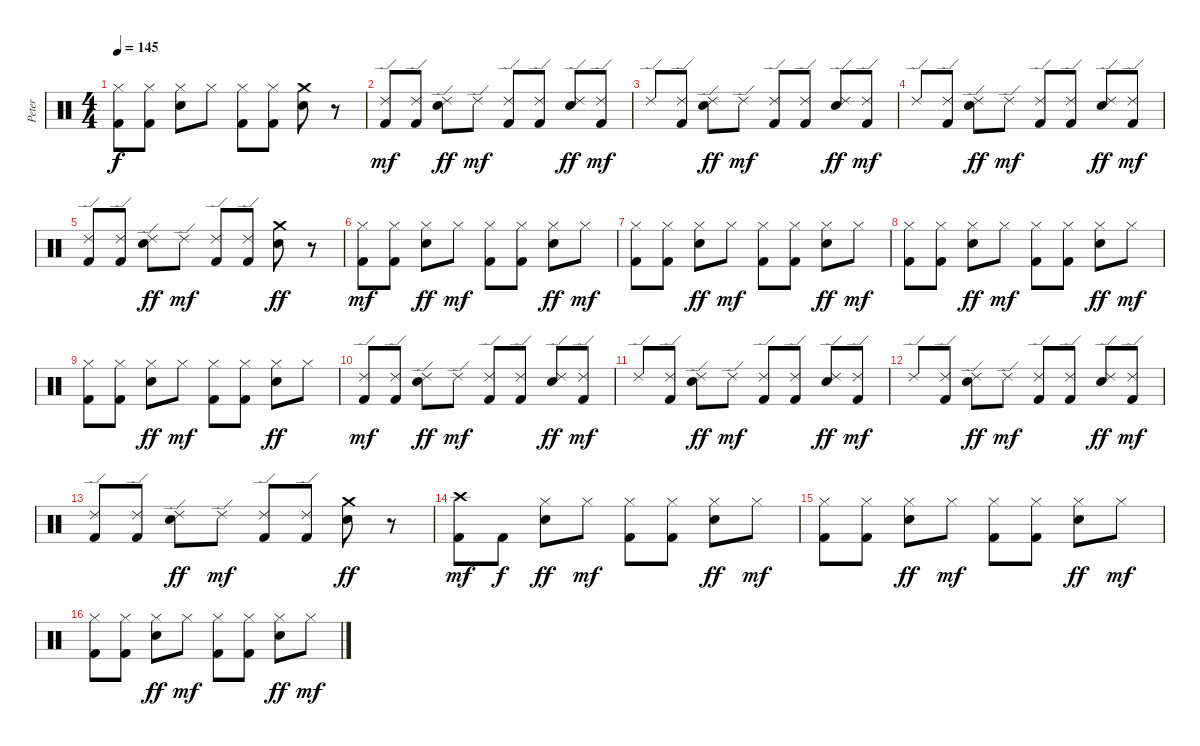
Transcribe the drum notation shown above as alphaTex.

\track ("Peter" "Peter") {instrument percussion}
\staff {score}
\articulation defaults
\ts (4 4)
\tempo 145
\clef neutral
\ks c
("Hi-Hat (closed)" "Kick (hit) 2").8{dy f} ("Hi-Hat (closed)" "Kick (hit) 2").8 ("Hi-Hat (closed)" "Electric Snare (hit)").8 "Hi-Hat (closed)".8 ("Hi-Hat (closed)" "Kick (hit) 2").8 ("Hi-Hat (closed)" "Kick (hit) 2").8 ("Crash medium (hit)" "Electric Snare (hit)").8 r.8 |
("Ride (edge) 2" "Kick (hit) 2").8{dy mf} ("Ride (edge) 2" "Kick (hit) 2").8 ("Ride (edge) 2" "Electric Snare (hit)").8{dy ff} "Ride (edge) 2".8{dy mf} ("Ride (edge) 2" "Kick (hit) 2").8 ("Ride (edge) 2" "Kick (hit) 2").8 ("Ride (edge) 2" "Electric Snare (hit)").8{dy ff} ("Ride (edge) 2" "Kick (hit) 2").8{dy mf} |
"Ride (edge) 2".8 ("Ride (edge) 2" "Kick (hit) 2").8 ("Ride (edge) 2" "Electric Snare (hit)").8{dy ff} "Ride (edge) 2".8{dy mf} ("Ride (edge) 2" "Kick (hit) 2").8 ("Ride (edge) 2" "Kick (hit) 2").8 ("Ride (edge) 2" "Electric Snare (hit)").8{dy ff} ("Ride (edge) 2" "Kick (hit) 2").8{dy mf} |
"Ride (edge) 2".8 ("Ride (edge) 2" "Kick (hit) 2").8 ("Ride (edge) 2" "Electric Snare (hit)").8{dy ff} "Ride (edge) 2".8{dy mf} ("Ride (edge) 2" "Kick (hit) 2").8 ("Ride (edge) 2" "Kick (hit) 2").8 ("Ride (edge) 2" "Electric Snare (hit)").8{dy ff} ("Ride (edge) 2" "Kick (hit) 2").8{dy mf} |
("Ride (edge) 2" "Kick (hit) 2").8 ("Ride (edge) 2" "Kick (hit) 2").8 ("Ride (edge) 2" "Electric Snare (hit)").8{dy ff} "Ride (edge) 2".8{dy mf} ("Ride (edge) 2" "Kick (hit) 2").8 ("Ride (edge) 2" "Kick (hit) 2").8 ("Crash medium (hit)" "Electric Snare (hit)").8{dy ff} r.8 |
("Hi-Hat (closed)" "Kick (hit) 2").8{dy mf} ("Hi-Hat (closed)" "Kick (hit) 2").8 ("Hi-Hat (closed)" "Electric Snare (hit)").8{dy ff} "Hi-Hat (closed)".8{dy mf} ("Hi-Hat (closed)" "Kick (hit) 2").8 ("Hi-Hat (closed)" "Kick (hit) 2").8 ("Hi-Hat (closed)" "Electric Snare (hit)").8{dy ff} "Hi-Hat (closed)".8{dy mf} |
("Hi-Hat (closed)" "Kick (hit) 2").8 ("Hi-Hat (closed)" "Kick (hit) 2").8 ("Hi-Hat (closed)" "Electric Snare (hit)").8{dy ff} "Hi-Hat (closed)".8{dy mf} ("Hi-Hat (closed)" "Kick (hit) 2").8 ("Hi-Hat (closed)" "Kick (hit) 2").8 ("Hi-Hat (closed)" "Electric Snare (hit)").8{dy ff} "Hi-Hat (closed)".8{dy mf} |
("Hi-Hat (closed)" "Kick (hit) 2").8 ("Hi-Hat (closed)" "Kick (hit) 2").8 ("Hi-Hat (closed)" "Electric Snare (hit)").8{dy ff} "Hi-Hat (closed)".8{dy mf} ("Hi-Hat (closed)" "Kick (hit) 2").8 ("Hi-Hat (closed)" "Kick (hit) 2").8 ("Hi-Hat (closed)" "Electric Snare (hit)").8{dy ff} "Hi-Hat (closed)".8{dy mf} |
("Hi-Hat (closed)" "Kick (hit) 2").8 ("Hi-Hat (closed)" "Kick (hit) 2").8 ("Hi-Hat (closed)" "Electric Snare (hit)").8{dy ff} "Hi-Hat (closed)".8{dy mf} ("Hi-Hat (closed)" "Kick (hit) 2").8 ("Hi-Hat (closed)" "Kick (hit) 2").8 ("Hi-Hat (closed)" "Electric Snare (hit)").8{dy ff} "Hi-Hat (closed)".8 |
("Ride (edge) 2" "Kick (hit) 2").8{dy mf} ("Ride (edge) 2" "Kick (hit) 2").8 ("Ride (edge) 2" "Electric Snare (hit)").8{dy ff} "Ride (edge) 2".8{dy mf} ("Ride (edge) 2" "Kick (hit) 2").8 ("Ride (edge) 2" "Kick (hit) 2").8 ("Ride (edge) 2" "Electric Snare (hit)").8{dy ff} ("Ride (edge) 2" "Kick (hit) 2").8{dy mf} |
"Ride (edge) 2".8 ("Ride (edge) 2" "Kick (hit) 2").8 ("Ride (edge) 2" "Electric Snare (hit)").8{dy ff} "Ride (edge) 2".8{dy mf} ("Ride (edge) 2" "Kick (hit) 2").8 ("Ride (edge) 2" "Kick (hit) 2").8 ("Ride (edge) 2" "Electric Snare (hit)").8{dy ff} ("Ride (edge) 2" "Kick (hit) 2").8{dy mf} |
"Ride (edge) 2".8 ("Ride (edge) 2" "Kick (hit) 2").8 ("Ride (edge) 2" "Electric Snare (hit)").8{dy ff} "Ride (edge) 2".8{dy mf} ("Ride (edge) 2" "Kick (hit) 2").8 ("Ride (edge) 2" "Kick (hit) 2").8 ("Ride (edge) 2" "Electric Snare (hit)").8{dy ff} ("Ride (edge) 2" "Kick (hit) 2").8{dy mf} |
("Ride (edge) 2" "Kick (hit) 2").8 ("Ride (edge) 2" "Kick (hit) 2").8 ("Ride (edge) 2" "Electric Snare (hit)").8{dy ff} "Ride (edge) 2".8{dy mf} ("Ride (edge) 2" "Kick (hit) 2").8 ("Ride (edge) 2" "Kick (hit) 2").8 ("Crash medium (hit)" "Electric Snare (hit)").8{dy ff} r.8 |
("Crash high (hit)" "Kick (hit) 2").8{dy mf} "Kick (hit) 2".8{dy f} ("Hi-Hat (closed)" "Electric Snare (hit)").8{dy ff} "Hi-Hat (closed)".8{dy mf} ("Hi-Hat (closed)" "Kick (hit) 2").8 ("Hi-Hat (closed)" "Kick (hit) 2").8 ("Hi-Hat (closed)" "Electric Snare (hit)").8{dy ff} "Hi-Hat (closed)".8{dy mf} |
("Hi-Hat (closed)" "Kick (hit) 2").8 ("Hi-Hat (closed)" "Kick (hit) 2").8 ("Hi-Hat (closed)" "Electric Snare (hit)").8{dy ff} "Hi-Hat (closed)".8{dy mf} ("Hi-Hat (closed)" "Kick (hit) 2").8 ("Hi-Hat (closed)" "Kick (hit) 2").8 ("Hi-Hat (closed)" "Electric Snare (hit)").8{dy ff} "Hi-Hat (closed)".8{dy mf} |
("Hi-Hat (closed)" "Kick (hit) 2").8 ("Hi-Hat (closed)" "Kick (hit) 2").8 ("Hi-Hat (closed)" "Electric Snare (hit)").8{dy ff} "Hi-Hat (closed)".8{dy mf} ("Hi-Hat (closed)" "Kick (hit) 2").8 ("Hi-Hat (closed)" "Kick (hit) 2").8 ("Hi-Hat (closed)" "Electric Snare (hit)").8{dy ff} "Hi-Hat (closed)".8{dy mf}
